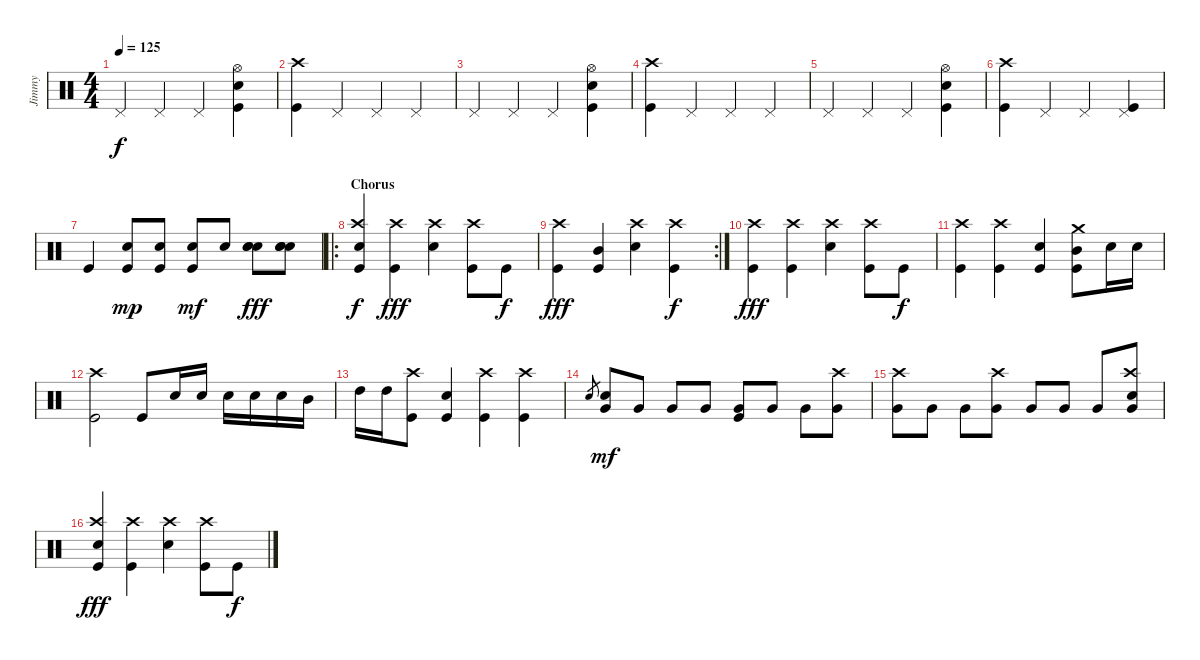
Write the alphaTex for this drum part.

\track ("Jimmy" "Jimmy") {instrument percussion}
\staff {score}
\articulation defaults
\ts (4 4)
\tempo 125
\clef neutral
\ks c "Pedal Hi-Hat (hit)".4{dy f} "Pedal Hi-Hat (hit)".4 "Pedal Hi-Hat (hit)".4
("Electric Snare (hit)" "Kick (hit)" "Hi-Hat (open)").4 |
("Crash high (hit)" "Kick (hit)").4 "Pedal Hi-Hat (hit)".4 "Pedal Hi-Hat (hit)".4 "Pedal Hi-Hat (hit)".4 |
"Pedal Hi-Hat (hit)".4 "Pedal Hi-Hat (hit)".4 "Pedal Hi-Hat (hit)".4 ("Electric Snare (hit)" "Kick (hit)" "Hi-Hat (open)").4 |
("Crash high (hit)" "Kick (hit)").4 "Pedal Hi-Hat (hit)".4 "Pedal Hi-Hat (hit)".4 "Pedal Hi-Hat (hit)".4 |
"Pedal Hi-Hat (hit)".4 "Pedal Hi-Hat (hit)".4 "Pedal Hi-Hat (hit)".4 ("Electric Snare (hit)" "Kick (hit)" "Hi-Hat (open)").4 |
("Crash high (hit)" "Kick (hit)").4 "Pedal Hi-Hat (hit)".4 "Pedal Hi-Hat (hit)".4 ("Pedal Hi-Hat (hit)" "Kick (hit)").4 |
"Kick (hit)".4 ("Snare (hit) 2" "Kick (hit)").8{dy mp} ("Snare (hit) 2" "Kick (hit)").8 ("Snare (hit) 2" "Kick (hit)").8{dy mf} "Snare (hit) 2".8 ("Electric Snare (hit)" "Electric Snare (hit)" "Electric Snare (hit)").8{dy fff} ("Electric Snare (hit)" "Electric Snare (hit)" "Electric Snare (hit)").8 |
\ro
\section ("" "Chorus")
("Crash high (hit)" "Snare (hit) 2" "Kick (hit)").4{dy f} ("Crash high (hit)" "Kick (hit)").4{dy fff} ("Crash high (hit)" "Snare (hit) 2").4 ("Crash high (hit)" "Kick (hit)").8 "Kick (hit)".8{dy f} |
\rc 2
("Crash high (hit)" "Kick (hit)").4{dy fff} ("Mid Tom (hit)" "Kick (hit)").4 ("Crash high (hit)" "Snare (hit) 2").4 ("Crash high (hit)" "Kick (hit)").4{dy f} |
("Crash high (hit)" "Kick (hit)").4{dy fff} ("Crash high (hit)" "Kick (hit)").4 ("Crash high (hit)" "Snare (hit) 2").4 ("Crash high (hit)" "Kick (hit)").8 "Kick (hit)".8{dy f} |
("Crash high (hit)" "Kick (hit)").4 ("Crash high (hit)" "Kick (hit)").4 ("Snare (hit) 2" "Kick (hit)").4 ("Crash medium (hit)" "Mid Tom (hit)" "Kick (hit)").8 "Snare (hit) 2".16 "Snare (hit) 2".16 |
("Crash high (hit)" "Kick (hit)").2 "Kick (hit)".8 "Snare (hit) 2".16 "Snare (hit) 2".16 "Snare (hit) 2".16 "Snare (hit) 2".16 "Snare (hit) 2".16 "Mid Tom (hit)".16 |
"High Tom (hit)".16 "High Tom (hit)".16 ("Crash high (hit)" "Kick (hit)").8 ("Snare (hit) 2" "Kick (hit)").4 ("Crash high (hit)" "Kick (hit)").4 ("Crash high (hit)" "Kick (hit)").4 |
"Electric Snare (hit)".8{gr} ("Electric Snare (hit)" "Very Low Tom (hit)").8{dy mf} "Very Low Tom (hit)".8 "Very Low Tom (hit)".8 "Very Low Tom (hit)".8 ("Kick (hit)" "Very Low Tom (hit)").8 "Very Low Tom (hit)".8 "Very Low Tom (hit)".8 ("Crash high (hit)" "Very Low Tom (hit)").8 |
("Crash high (hit)" "Very Low Tom (hit)").8 "Very Low Tom (hit)".8 "Very Low Tom (hit)".8 ("Crash high (hit)" "Very Low Tom (hit)").8 "Very Low Tom (hit)".8 "Very Low Tom (hit)".8 "Very Low Tom (hit)".8 ("Crash high (hit)" "Electric Snare (hit)" "Very Low Tom (hit)").8 |
("Crash high (hit)" "Snare (hit) 2" "Kick (hit)").4{dy fff} ("Crash high (hit)" "Kick (hit)").4 ("Crash high (hit)" "Snare (hit) 2").4 ("Crash high (hit)" "Kick (hit)").8 "Kick (hit)".8{dy f}
